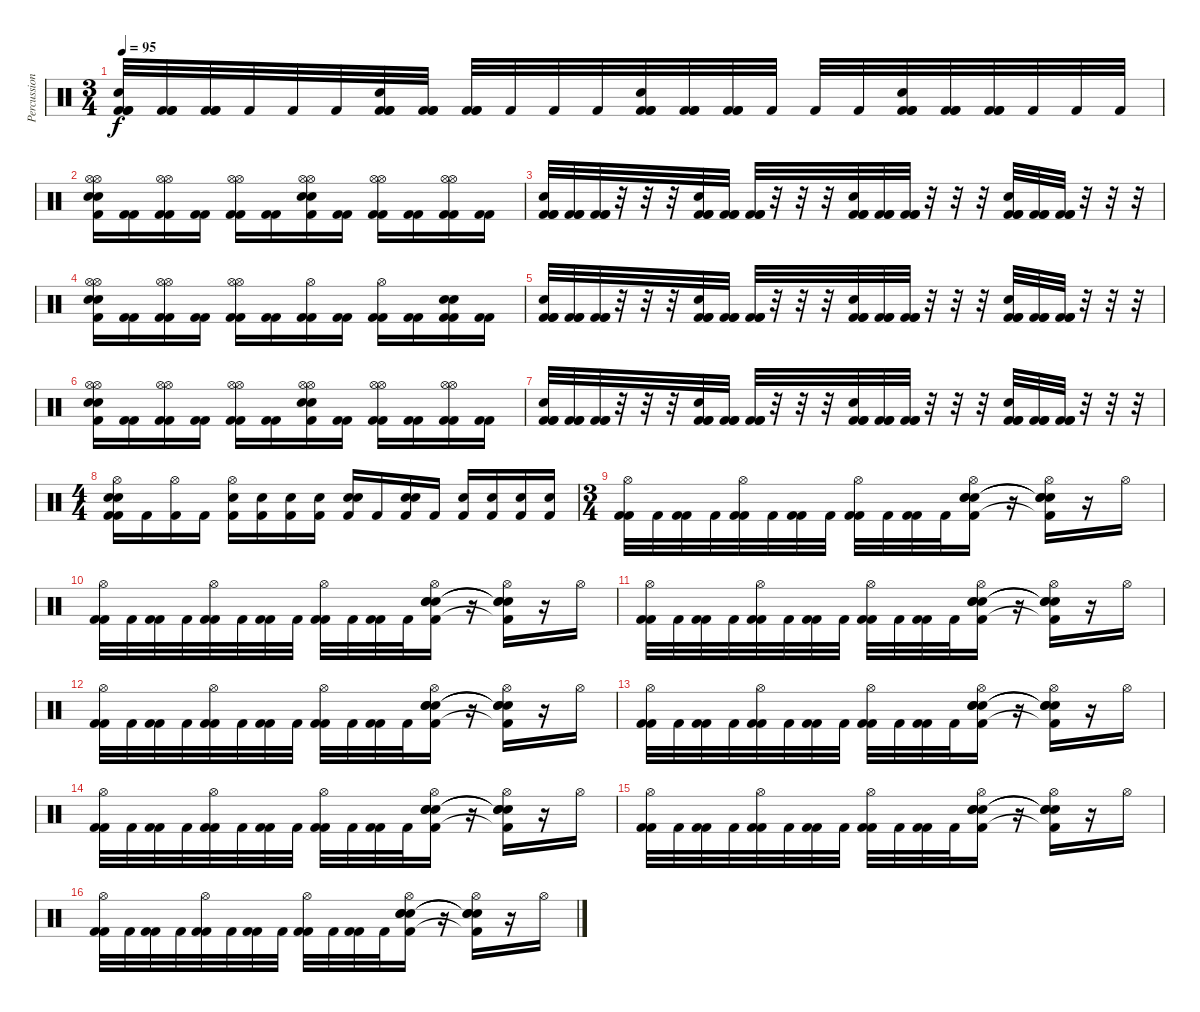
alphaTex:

\track ("Percussion" "Percussion") {instrument percussion}
\staff {score}
\articulation defaults
\ts (3 4)
\tempo 95
\clef neutral
\ks c
("Snare (hit) 2" "Kick (hit) 2" "Kick (hit) 2" "Kick (hit) 2").32{dy f} ("Kick (hit) 2" "Kick (hit) 2" "Kick (hit) 2").32 ("Kick (hit) 2" "Kick (hit) 2" "Kick (hit) 2").32 "Kick (hit) 2".32 "Kick (hit) 2".32 "Kick (hit) 2".32 ("Snare (hit) 2" "Kick (hit) 2" "Kick (hit) 2" "Kick (hit) 2").32 ("Kick (hit) 2" "Kick (hit) 2" "Kick (hit) 2").32 ("Kick (hit) 2" "Kick (hit) 2" "Kick (hit) 2").32 "Kick (hit) 2".32 "Kick (hit) 2".32 "Kick (hit) 2".32 ("Snare (hit) 2" "Kick (hit) 2" "Kick (hit) 2" "Kick (hit) 2").32 ("Kick (hit) 2" "Kick (hit) 2" "Kick (hit) 2").32 ("Kick (hit) 2" "Kick (hit) 2" "Kick (hit) 2").32 "Kick (hit) 2".32 "Kick (hit) 2".32 "Kick (hit) 2".32 ("Snare (hit) 2" "Kick (hit) 2" "Kick (hit) 2" "Kick (hit) 2").32 ("Kick (hit) 2" "Kick (hit) 2" "Kick (hit) 2").32 ("Kick (hit) 2" "Kick (hit) 2" "Kick (hit) 2").32 "Kick (hit) 2".32 "Kick (hit) 2".32 "Kick (hit) 2".32 |
("Hi-Hat (open)" "Hi-Hat (open)" "Snare (hit) 2" "Snare (hit) 2" "Kick (hit) 2").16 ("Kick (hit) 2" "Kick (hit) 2").16 ("Hi-Hat (open)" "Hi-Hat (open)" "Kick (hit) 2" "Kick (hit) 2").16 ("Kick (hit) 2" "Kick (hit) 2").16 ("Hi-Hat (open)" "Hi-Hat (open)" "Kick (hit) 2" "Kick (hit) 2").16 ("Kick (hit) 2" "Kick (hit) 2").16 ("Hi-Hat (open)" "Hi-Hat (open)" "Snare (hit) 2" "Snare (hit) 2" "Kick (hit) 2").16 ("Kick (hit) 2" "Kick (hit) 2").16 ("Hi-Hat (open)" "Hi-Hat (open)" "Kick (hit) 2" "Kick (hit) 2").16 ("Kick (hit) 2" "Kick (hit) 2").16 ("Hi-Hat (open)" "Hi-Hat (open)" "Kick (hit) 2" "Kick (hit) 2").16 ("Kick (hit) 2" "Kick (hit) 2").16 |
("Snare (hit) 2" "Kick (hit) 2" "Kick (hit) 2" "Kick (hit) 2").32 ("Kick (hit) 2" "Kick (hit) 2" "Kick (hit) 2").32 ("Kick (hit) 2" "Kick (hit) 2" "Kick (hit) 2").32 r.32 r.32 r.32 ("Snare (hit) 2" "Kick (hit) 2" "Kick (hit) 2" "Kick (hit) 2").32 ("Kick (hit) 2" "Kick (hit) 2" "Kick (hit) 2").32 ("Kick (hit) 2" "Kick (hit) 2" "Kick (hit) 2").32 r.32 r.32 r.32 ("Snare (hit) 2" "Kick (hit) 2" "Kick (hit) 2" "Kick (hit) 2").32 ("Kick (hit) 2" "Kick (hit) 2" "Kick (hit) 2").32 ("Kick (hit) 2" "Kick (hit) 2" "Kick (hit) 2").32 r.32 r.32 r.32 ("Snare (hit) 2" "Kick (hit) 2" "Kick (hit) 2" "Kick (hit) 2").32 ("Kick (hit) 2" "Kick (hit) 2" "Kick (hit) 2").32 ("Kick (hit) 2" "Kick (hit) 2" "Kick (hit) 2").32 r.32 r.32 r.32 |
("Hi-Hat (open)" "Hi-Hat (open)" "Snare (hit) 2" "Snare (hit) 2" "Kick (hit) 2").16 ("Kick (hit) 2" "Kick (hit) 2").16 ("Hi-Hat (open)" "Hi-Hat (open)" "Kick (hit) 2" "Kick (hit) 2").16 ("Kick (hit) 2" "Kick (hit) 2").16 ("Hi-Hat (open)" "Hi-Hat (open)" "Kick (hit) 2" "Kick (hit) 2").16 ("Kick (hit) 2" "Kick (hit) 2").16 ("Hi-Hat (open)" "Kick (hit) 2" "Kick (hit) 2").16 ("Kick (hit) 2" "Kick (hit) 2").16 ("Hi-Hat (open)" "Kick (hit) 2" "Kick (hit) 2").16 ("Kick (hit) 2" "Kick (hit) 2").16 ("Snare (hit) 2" "Snare (hit) 2" "Kick (hit) 2" "Kick (hit) 2").16 ("Kick (hit) 2" "Kick (hit) 2").16 |
("Snare (hit) 2" "Kick (hit) 2" "Kick (hit) 2" "Kick (hit) 2").32 ("Kick (hit) 2" "Kick (hit) 2" "Kick (hit) 2").32 ("Kick (hit) 2" "Kick (hit) 2" "Kick (hit) 2").32 r.32 r.32 r.32 ("Snare (hit) 2" "Kick (hit) 2" "Kick (hit) 2" "Kick (hit) 2").32 ("Kick (hit) 2" "Kick (hit) 2" "Kick (hit) 2").32 ("Kick (hit) 2" "Kick (hit) 2" "Kick (hit) 2").32 r.32 r.32 r.32 ("Snare (hit) 2" "Kick (hit) 2" "Kick (hit) 2" "Kick (hit) 2").32 ("Kick (hit) 2" "Kick (hit) 2" "Kick (hit) 2").32 ("Kick (hit) 2" "Kick (hit) 2" "Kick (hit) 2").32 r.32 r.32 r.32 ("Snare (hit) 2" "Kick (hit) 2" "Kick (hit) 2" "Kick (hit) 2").32 ("Kick (hit) 2" "Kick (hit) 2" "Kick (hit) 2").32 ("Kick (hit) 2" "Kick (hit) 2" "Kick (hit) 2").32 r.32 r.32 r.32 |
("Hi-Hat (open)" "Hi-Hat (open)" "Snare (hit) 2" "Snare (hit) 2" "Kick (hit) 2").16 ("Kick (hit) 2" "Kick (hit) 2").16 ("Hi-Hat (open)" "Hi-Hat (open)" "Kick (hit) 2" "Kick (hit) 2").16 ("Kick (hit) 2" "Kick (hit) 2").16 ("Hi-Hat (open)" "Hi-Hat (open)" "Kick (hit) 2" "Kick (hit) 2").16 ("Kick (hit) 2" "Kick (hit) 2").16 ("Hi-Hat (open)" "Hi-Hat (open)" "Snare (hit) 2" "Snare (hit) 2" "Kick (hit) 2").16 ("Kick (hit) 2" "Kick (hit) 2").16 ("Hi-Hat (open)" "Hi-Hat (open)" "Kick (hit) 2" "Kick (hit) 2").16 ("Kick (hit) 2" "Kick (hit) 2").16 ("Hi-Hat (open)" "Hi-Hat (open)" "Kick (hit) 2" "Kick (hit) 2").16 ("Kick (hit) 2" "Kick (hit) 2").16 |
("Snare (hit) 2" "Kick (hit) 2" "Kick (hit) 2" "Kick (hit) 2").32 ("Kick (hit) 2" "Kick (hit) 2" "Kick (hit) 2").32 ("Kick (hit) 2" "Kick (hit) 2" "Kick (hit) 2").32 r.32 r.32 r.32 ("Snare (hit) 2" "Kick (hit) 2" "Kick (hit) 2" "Kick (hit) 2").32 ("Kick (hit) 2" "Kick (hit) 2" "Kick (hit) 2").32 ("Kick (hit) 2" "Kick (hit) 2" "Kick (hit) 2").32 r.32 r.32 r.32 ("Snare (hit) 2" "Kick (hit) 2" "Kick (hit) 2" "Kick (hit) 2").32 ("Kick (hit) 2" "Kick (hit) 2" "Kick (hit) 2").32 ("Kick (hit) 2" "Kick (hit) 2" "Kick (hit) 2").32 r.32 r.32 r.32 ("Snare (hit) 2" "Kick (hit) 2" "Kick (hit) 2" "Kick (hit) 2").32 ("Kick (hit) 2" "Kick (hit) 2" "Kick (hit) 2").32 ("Kick (hit) 2" "Kick (hit) 2" "Kick (hit) 2").32 r.32 r.32 r.32 |
\ts (4 4)
("Hi-Hat (open)" "Snare (hit) 2" "Snare (hit) 2" "Kick (hit) 2" "Kick (hit) 2").16 "Kick (hit) 2".16 ("Hi-Hat (open)" "Kick (hit) 2").16 "Kick (hit) 2".16 ("Hi-Hat (open)" "Snare (hit) 2" "Kick (hit) 2").16 ("Snare (hit) 2" "Kick (hit) 2").16 ("Snare (hit) 2" "Kick (hit) 2").16 ("Snare (hit) 2" "Kick (hit) 2").16 ("Snare (hit) 2" "Snare (hit) 2" "Kick (hit) 2").16 "Kick (hit) 2".16 ("Snare (hit) 2" "Snare (hit) 2" "Kick (hit) 2").16 "Kick (hit) 2".16 ("Snare (hit) 2" "Kick (hit) 2").16 ("Snare (hit) 2" "Kick (hit) 2").16 ("Snare (hit) 2" "Kick (hit) 2").16 ("Snare (hit) 2" "Kick (hit) 2").16 |
\ts (3 4)
("Hi-Hat (open)" "Kick (hit) 2" "Kick (hit) 2").32 "Kick (hit) 2".32 ("Kick (hit) 2" "Kick (hit) 2").32 "Kick (hit) 2".32 ("Hi-Hat (open)" "Kick (hit) 2" "Kick (hit) 2").32 "Kick (hit) 2".32 ("Kick (hit) 2" "Kick (hit) 2").32 "Kick (hit) 2".32 ("Hi-Hat (open)" "Kick (hit) 2" "Kick (hit) 2").32 "Kick (hit) 2".32 ("Kick (hit) 2" "Kick (hit) 2").32 "Kick (hit) 2".32 ("Hi-Hat (open)" "Snare (hit) 2" "Snare (hit) 2" "Snare (hit) 2" "Kick (hit) 2").16 r.16 ("Hi-Hat (open)" "Snare (hit) 2"{t} "Snare (hit) 2"{t} "Snare (hit) 2"{t} "Kick (hit) 2"{t}).16 r.16 "Hi-Hat (open)".16 |
("Hi-Hat (open)" "Kick (hit) 2" "Kick (hit) 2").32 "Kick (hit) 2".32 ("Kick (hit) 2" "Kick (hit) 2").32 "Kick (hit) 2".32 ("Hi-Hat (open)" "Kick (hit) 2" "Kick (hit) 2").32 "Kick (hit) 2".32 ("Kick (hit) 2" "Kick (hit) 2").32 "Kick (hit) 2".32 ("Hi-Hat (open)" "Kick (hit) 2" "Kick (hit) 2").32 "Kick (hit) 2".32 ("Kick (hit) 2" "Kick (hit) 2").32 "Kick (hit) 2".32 ("Hi-Hat (open)" "Snare (hit) 2" "Snare (hit) 2" "Snare (hit) 2" "Kick (hit) 2").16 r.16 ("Hi-Hat (open)" "Snare (hit) 2"{t} "Snare (hit) 2"{t} "Snare (hit) 2"{t} "Kick (hit) 2"{t}).16 r.16 "Hi-Hat (open)".16 |
("Hi-Hat (open)" "Kick (hit) 2" "Kick (hit) 2").32 "Kick (hit) 2".32 ("Kick (hit) 2" "Kick (hit) 2").32 "Kick (hit) 2".32 ("Hi-Hat (open)" "Kick (hit) 2" "Kick (hit) 2").32 "Kick (hit) 2".32 ("Kick (hit) 2" "Kick (hit) 2").32 "Kick (hit) 2".32 ("Hi-Hat (open)" "Kick (hit) 2" "Kick (hit) 2").32 "Kick (hit) 2".32 ("Kick (hit) 2" "Kick (hit) 2").32 "Kick (hit) 2".32 ("Hi-Hat (open)" "Snare (hit) 2" "Snare (hit) 2" "Snare (hit) 2" "Kick (hit) 2").16 r.16 ("Hi-Hat (open)" "Snare (hit) 2"{t} "Snare (hit) 2"{t} "Snare (hit) 2"{t} "Kick (hit) 2"{t}).16 r.16 "Hi-Hat (open)".16 |
("Hi-Hat (open)" "Kick (hit) 2" "Kick (hit) 2").32 "Kick (hit) 2".32 ("Kick (hit) 2" "Kick (hit) 2").32 "Kick (hit) 2".32 ("Hi-Hat (open)" "Kick (hit) 2" "Kick (hit) 2").32 "Kick (hit) 2".32 ("Kick (hit) 2" "Kick (hit) 2").32 "Kick (hit) 2".32 ("Hi-Hat (open)" "Kick (hit) 2" "Kick (hit) 2").32 "Kick (hit) 2".32 ("Kick (hit) 2" "Kick (hit) 2").32 "Kick (hit) 2".32 ("Hi-Hat (open)" "Snare (hit) 2" "Snare (hit) 2" "Snare (hit) 2" "Kick (hit) 2").16 r.16 ("Hi-Hat (open)" "Snare (hit) 2"{t} "Snare (hit) 2"{t} "Snare (hit) 2"{t} "Kick (hit) 2"{t}).16 r.16 "Hi-Hat (open)".16 |
("Hi-Hat (open)" "Kick (hit) 2" "Kick (hit) 2").32 "Kick (hit) 2".32 ("Kick (hit) 2" "Kick (hit) 2").32 "Kick (hit) 2".32 ("Hi-Hat (open)" "Kick (hit) 2" "Kick (hit) 2").32 "Kick (hit) 2".32 ("Kick (hit) 2" "Kick (hit) 2").32 "Kick (hit) 2".32 ("Hi-Hat (open)" "Kick (hit) 2" "Kick (hit) 2").32 "Kick (hit) 2".32 ("Kick (hit) 2" "Kick (hit) 2").32 "Kick (hit) 2".32 ("Hi-Hat (open)" "Snare (hit) 2" "Snare (hit) 2" "Snare (hit) 2" "Kick (hit) 2").16 r.16 ("Hi-Hat (open)" "Snare (hit) 2"{t} "Snare (hit) 2"{t} "Snare (hit) 2"{t} "Kick (hit) 2"{t}).16 r.16 "Hi-Hat (open)".16 |
("Hi-Hat (open)" "Kick (hit) 2" "Kick (hit) 2").32 "Kick (hit) 2".32 ("Kick (hit) 2" "Kick (hit) 2").32 "Kick (hit) 2".32 ("Hi-Hat (open)" "Kick (hit) 2" "Kick (hit) 2").32 "Kick (hit) 2".32 ("Kick (hit) 2" "Kick (hit) 2").32 "Kick (hit) 2".32 ("Hi-Hat (open)" "Kick (hit) 2" "Kick (hit) 2").32 "Kick (hit) 2".32 ("Kick (hit) 2" "Kick (hit) 2").32 "Kick (hit) 2".32 ("Hi-Hat (open)" "Snare (hit) 2" "Snare (hit) 2" "Snare (hit) 2" "Kick (hit) 2").16 r.16 ("Hi-Hat (open)" "Snare (hit) 2"{t} "Snare (hit) 2"{t} "Snare (hit) 2"{t} "Kick (hit) 2"{t}).16 r.16 "Hi-Hat (open)".16 |
("Hi-Hat (open)" "Kick (hit) 2" "Kick (hit) 2").32 "Kick (hit) 2".32 ("Kick (hit) 2" "Kick (hit) 2").32 "Kick (hit) 2".32 ("Hi-Hat (open)" "Kick (hit) 2" "Kick (hit) 2").32 "Kick (hit) 2".32 ("Kick (hit) 2" "Kick (hit) 2").32 "Kick (hit) 2".32 ("Hi-Hat (open)" "Kick (hit) 2" "Kick (hit) 2").32 "Kick (hit) 2".32 ("Kick (hit) 2" "Kick (hit) 2").32 "Kick (hit) 2".32 ("Hi-Hat (open)" "Snare (hit) 2" "Snare (hit) 2" "Snare (hit) 2" "Kick (hit) 2").16 r.16 ("Hi-Hat (open)" "Snare (hit) 2"{t} "Snare (hit) 2"{t} "Snare (hit) 2"{t} "Kick (hit) 2"{t}).16 r.16 "Hi-Hat (open)".16 |
("Hi-Hat (open)" "Kick (hit) 2" "Kick (hit) 2").32 "Kick (hit) 2".32 ("Kick (hit) 2" "Kick (hit) 2").32 "Kick (hit) 2".32 ("Hi-Hat (open)" "Kick (hit) 2" "Kick (hit) 2").32 "Kick (hit) 2".32 ("Kick (hit) 2" "Kick (hit) 2").32 "Kick (hit) 2".32 ("Hi-Hat (open)" "Kick (hit) 2" "Kick (hit) 2").32 "Kick (hit) 2".32 ("Kick (hit) 2" "Kick (hit) 2").32 "Kick (hit) 2".32 ("Hi-Hat (open)" "Snare (hit) 2" "Snare (hit) 2" "Snare (hit) 2" "Kick (hit) 2").16 r.16 ("Hi-Hat (open)" "Snare (hit) 2"{t} "Snare (hit) 2"{t} "Snare (hit) 2"{t} "Kick (hit) 2"{t}).16 r.16 "Hi-Hat (open)".16
